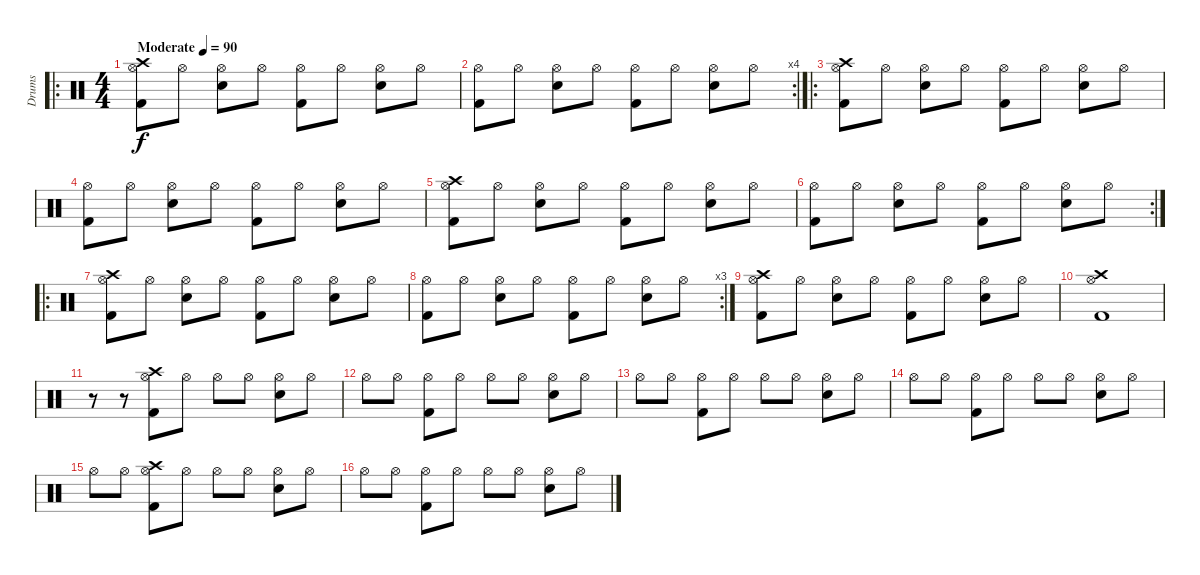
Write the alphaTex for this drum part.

\track ("Drums" "Drums") {instrument percussion}
\staff {score}
\articulation defaults
\ro
\ts (4 4)
\tempo (90 "Moderate")
\clef neutral
\ks c
("Crash high (hit)" "Kick (hit) 2" "Hi-Hat (open)").8{dy f} "Hi-Hat (open)".8 ("Snare (hit) 2" "Hi-Hat (open)").8 "Hi-Hat (open)".8 ("Kick (hit) 2" "Hi-Hat (open)").8 "Hi-Hat (open)".8 ("Snare (hit) 2" "Hi-Hat (open)").8 "Hi-Hat (open)".8 |
\rc 4
("Kick (hit) 2" "Hi-Hat (open)").8 "Hi-Hat (open)".8 ("Snare (hit) 2" "Hi-Hat (open)").8 "Hi-Hat (open)".8 ("Kick (hit) 2" "Hi-Hat (open)").8 "Hi-Hat (open)".8 ("Snare (hit) 2" "Hi-Hat (open)").8 "Hi-Hat (open)".8 |
\ro
("Crash high (hit)" "Kick (hit) 2" "Hi-Hat (open)").8 "Hi-Hat (open)".8 ("Snare (hit) 2" "Hi-Hat (open)").8 "Hi-Hat (open)".8 ("Kick (hit) 2" "Hi-Hat (open)").8 "Hi-Hat (open)".8 ("Snare (hit) 2" "Hi-Hat (open)").8 "Hi-Hat (open)".8 |
("Kick (hit) 2" "Hi-Hat (open)").8 "Hi-Hat (open)".8 ("Snare (hit) 2" "Hi-Hat (open)").8 "Hi-Hat (open)".8 ("Kick (hit) 2" "Hi-Hat (open)").8 "Hi-Hat (open)".8 ("Snare (hit) 2" "Hi-Hat (open)").8 "Hi-Hat (open)".8 |
("Crash high (hit)" "Kick (hit) 2" "Hi-Hat (open)").8 "Hi-Hat (open)".8 ("Snare (hit) 2" "Hi-Hat (open)").8 "Hi-Hat (open)".8 ("Kick (hit) 2" "Hi-Hat (open)").8 "Hi-Hat (open)".8 ("Snare (hit) 2" "Hi-Hat (open)").8 "Hi-Hat (open)".8 |
\rc 2
("Kick (hit) 2" "Hi-Hat (open)").8 "Hi-Hat (open)".8 ("Snare (hit) 2" "Hi-Hat (open)").8 "Hi-Hat (open)".8 ("Kick (hit) 2" "Hi-Hat (open)").8 "Hi-Hat (open)".8 ("Snare (hit) 2" "Hi-Hat (open)").8 "Hi-Hat (open)".8 |
\ro
("Crash high (hit)" "Kick (hit) 2" "Hi-Hat (open)").8 "Hi-Hat (open)".8 ("Snare (hit) 2" "Hi-Hat (open)").8 "Hi-Hat (open)".8 ("Kick (hit) 2" "Hi-Hat (open)").8 "Hi-Hat (open)".8 ("Snare (hit) 2" "Hi-Hat (open)").8 "Hi-Hat (open)".8 |
\rc 3
("Kick (hit) 2" "Hi-Hat (open)").8 "Hi-Hat (open)".8 ("Snare (hit) 2" "Hi-Hat (open)").8 "Hi-Hat (open)".8 ("Kick (hit) 2" "Hi-Hat (open)").8 "Hi-Hat (open)".8 ("Snare (hit) 2" "Hi-Hat (open)").8 "Hi-Hat (open)".8 |
("Crash high (hit)" "Kick (hit) 2" "Hi-Hat (open)").8 "Hi-Hat (open)".8 ("Snare (hit) 2" "Hi-Hat (open)").8 "Hi-Hat (open)".8 ("Kick (hit) 2" "Hi-Hat (open)").8 "Hi-Hat (open)".8 ("Snare (hit) 2" "Hi-Hat (open)").8 "Hi-Hat (open)".8 |
("Crash high (hit)" "Kick (hit) 2" "Hi-Hat (open)").1 |
r.8 r.8 ("Crash high (hit)" "Kick (hit) 2" "Hi-Hat (open)").8 "Hi-Hat (open)".8 "Hi-Hat (open)".8 "Hi-Hat (open)".8 ("Snare (hit) 2" "Hi-Hat (open)").8 "Hi-Hat (open)".8 |
"Hi-Hat (open)".8 "Hi-Hat (open)".8 ("Kick (hit) 2" "Hi-Hat (open)").8 "Hi-Hat (open)".8 "Hi-Hat (open)".8 "Hi-Hat (open)".8 ("Snare (hit) 2" "Hi-Hat (open)").8 "Hi-Hat (open)".8 |
"Hi-Hat (open)".8 "Hi-Hat (open)".8 ("Kick (hit) 2" "Hi-Hat (open)").8 "Hi-Hat (open)".8 "Hi-Hat (open)".8 "Hi-Hat (open)".8 ("Snare (hit) 2" "Hi-Hat (open)").8 "Hi-Hat (open)".8 |
"Hi-Hat (open)".8 "Hi-Hat (open)".8 ("Kick (hit) 2" "Hi-Hat (open)").8 "Hi-Hat (open)".8 "Hi-Hat (open)".8 "Hi-Hat (open)".8 ("Snare (hit) 2" "Hi-Hat (open)").8 "Hi-Hat (open)".8 |
"Hi-Hat (open)".8 "Hi-Hat (open)".8 ("Crash high (hit)" "Kick (hit) 2" "Hi-Hat (open)").8 "Hi-Hat (open)".8 "Hi-Hat (open)".8 "Hi-Hat (open)".8 ("Snare (hit) 2" "Hi-Hat (open)").8 "Hi-Hat (open)".8 |
"Hi-Hat (open)".8 "Hi-Hat (open)".8 ("Kick (hit) 2" "Hi-Hat (open)").8 "Hi-Hat (open)".8 "Hi-Hat (open)".8 "Hi-Hat (open)".8 ("Snare (hit) 2" "Hi-Hat (open)").8 "Hi-Hat (open)".8
